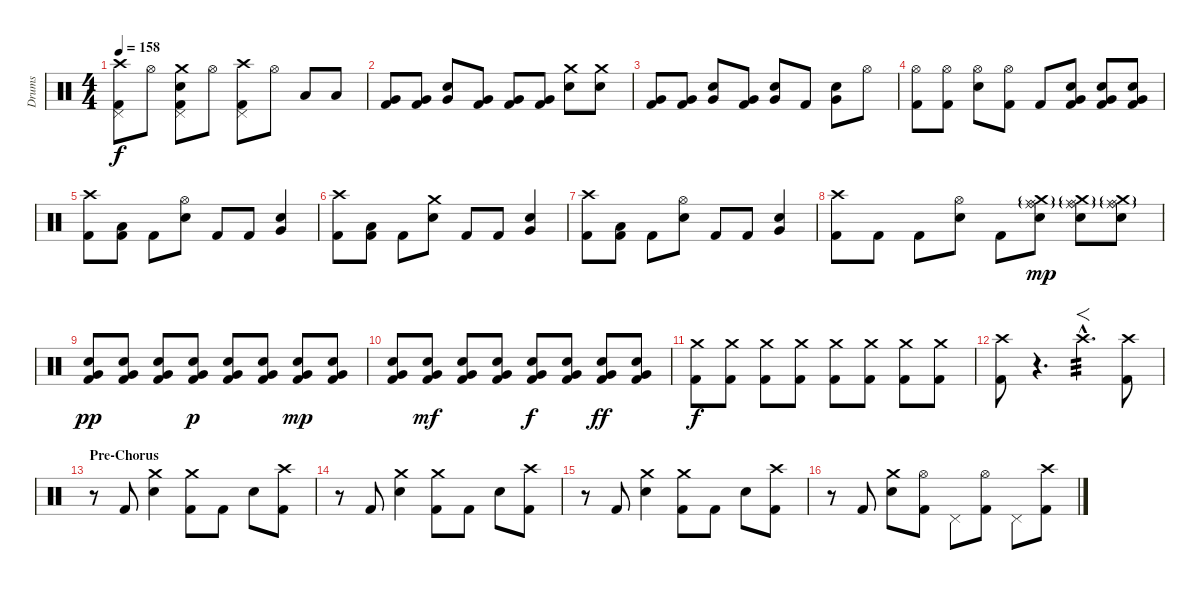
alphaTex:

\track ("Drums" "Drums") {instrument percussion}
\staff {score}
\articulation defaults
\ts (4 4)
\tempo 158
\clef neutral
\ks c
("Crash high (hit)" "Pedal Hi-Hat (hit)" "Kick (hit) 2").8{dy f} "Hi-Hat (open)".8 ("Crash medium (hit)" "Pedal Hi-Hat (hit)" "Snare (hit) 2" "Kick (hit) 2").8 "Hi-Hat (open)".8 ("Crash high (hit)" "Pedal Hi-Hat (hit)" "Kick (hit) 2").8 "Hi-Hat (open)".8 "Low Tom (hit)".8 "Low Tom (hit)".8 |
("Very Low Tom (hit)" "Kick (hit) 2").8 ("Very Low Tom (hit)" "Kick (hit) 2").8 ("Snare (hit) 2" "Very Low Tom (hit)").8 ("Very Low Tom (hit)" "Kick (hit) 2").8 ("Very Low Tom (hit)" "Kick (hit) 2").8 ("Very Low Tom (hit)" "Kick (hit) 2").8 ("Crash medium (hit)" "Snare (hit) 2").8 ("Crash medium (hit)" "Snare (hit) 2").8 |
("Very Low Tom (hit)" "Kick (hit) 2").8 ("Very Low Tom (hit)" "Kick (hit) 2").8 ("Snare (hit) 2" "Very Low Tom (hit)").8 ("Very Low Tom (hit)" "Kick (hit) 2").8 ("Snare (hit) 2" "Very Low Tom (hit)").8 "Kick (hit) 2".8 ("Snare (hit) 2" "Very Low Tom (hit)").8 "Hi-Hat (open)".8 |
("Hi-Hat (open)" "Kick (hit) 2").8 ("Hi-Hat (open)" "Kick (hit) 2").8 ("Hi-Hat (open)" "Snare (hit) 2").8 ("Hi-Hat (open)" "Kick (hit) 2").8 "Kick (hit) 2".8 ("Snare (hit) 2" "Very Low Tom (hit)" "Kick (hit) 2").8 ("Snare (hit) 2" "Very Low Tom (hit)" "Kick (hit) 2").8 ("Snare (hit) 2" "Very Low Tom (hit)" "Kick (hit) 2").8 |
("Crash high (hit)" "Kick (hit) 2").8 ("Low Tom (hit)" "Kick (hit) 2").8 "Kick (hit) 2".8 ("Hi-Hat (open)" "Snare (hit) 2").8 "Kick (hit) 2".8 "Kick (hit) 2".8 ("Snare (hit) 2" "Very Low Tom (hit)").4 |
("Crash high (hit)" "Kick (hit) 2").8 ("Low Tom (hit)" "Kick (hit) 2").8 "Kick (hit) 2".8 ("Crash medium (hit)" "Snare (hit) 2").8 "Kick (hit) 2".8 "Kick (hit) 2".8 ("Snare (hit) 2" "Very Low Tom (hit)").4 |
("Crash high (hit)" "Kick (hit) 2").8 ("Low Tom (hit)" "Kick (hit) 2").8 "Kick (hit) 2".8 ("Hi-Hat (open)" "Snare (hit) 2").8 "Kick (hit) 2".8 "Kick (hit) 2".8 ("Snare (hit) 2" "Very Low Tom (hit)").4 |
("Crash high (hit)" "Kick (hit) 2").8 "Kick (hit) 2".8 "Kick (hit) 2".8 ("Hi-Hat (open)" "Snare (hit) 2").8 "Kick (hit) 2".8 ("Ride (middle)" "Ride (bell)"{g} "Crash medium (hit)"{g} "Snare (hit) 2").8{dy mp} ("Ride (middle)" "Ride (bell)"{g} "Crash medium (hit)"{g} "Snare (hit) 2").8 ("Ride (middle)" "Ride (bell)"{g} "Crash medium (hit)"{g} "Snare (hit) 2").8 |
("Snare (hit) 2" "Very Low Tom (hit)" "Kick (hit) 2").8{dy pp} ("Snare (hit) 2" "Very Low Tom (hit)" "Kick (hit) 2").8 ("Snare (hit) 2" "Very Low Tom (hit)" "Kick (hit) 2").8 ("Snare (hit) 2" "Very Low Tom (hit)" "Kick (hit) 2").8{dy p} ("Snare (hit) 2" "Very Low Tom (hit)" "Kick (hit) 2").8 ("Snare (hit) 2" "Very Low Tom (hit)" "Kick (hit) 2").8 ("Snare (hit) 2" "Very Low Tom (hit)" "Kick (hit) 2").8{dy mp} ("Snare (hit) 2" "Very Low Tom (hit)" "Kick (hit) 2").8 |
("Snare (hit) 2" "Very Low Tom (hit)" "Kick (hit) 2").8 ("Snare (hit) 2" "Very Low Tom (hit)" "Kick (hit) 2").8{dy mf} ("Snare (hit) 2" "Very Low Tom (hit)" "Kick (hit) 2").8 ("Snare (hit) 2" "Very Low Tom (hit)" "Kick (hit) 2").8 ("Snare (hit) 2" "Very Low Tom (hit)" "Kick (hit) 2").8{dy f} ("Snare (hit) 2" "Very Low Tom (hit)" "Kick (hit) 2").8 ("Snare (hit) 2" "Very Low Tom (hit)" "Kick (hit) 2").8{dy ff} ("Snare (hit) 2" "Very Low Tom (hit)" "Kick (hit) 2").8 |
("Crash medium (hit)" "Kick (hit) 2").8{dy f} ("Crash medium (hit)" "Kick (hit) 2").8 ("Crash medium (hit)" "Kick (hit) 2").8 ("Crash medium (hit)" "Kick (hit) 2").8 ("Crash medium (hit)" "Kick (hit) 2").8 ("Crash medium (hit)" "Kick (hit) 2").8 ("Crash medium (hit)" "Kick (hit) 2").8 ("Crash medium (hit)" "Kick (hit) 2").8 |
("Crash high (hit)" "Kick (hit) 2").8 r.4{d volume 0} "Crash high (hit)"{hac}.4{f d tp 3 volume 16} ("Crash high (hit)" "Kick (hit) 2").8 |
\section ("" "Pre-Chorus")
r.8 "Kick (hit) 2".8 ("Crash medium (hit)" "Snare (hit) 2").4 ("Crash medium (hit)" "Kick (hit) 2").8 "Kick (hit) 2".8 "Snare (hit) 2".8 ("Crash high (hit)" "Kick (hit) 2").8 |
r.8 "Kick (hit) 2".8 ("Crash medium (hit)" "Snare (hit) 2").4 ("Crash medium (hit)" "Kick (hit) 2").8 "Kick (hit) 2".8 "Snare (hit) 2".8 ("Crash high (hit)" "Kick (hit) 2").8 |
r.8 "Kick (hit) 2".8 ("Crash medium (hit)" "Snare (hit) 2").4 ("Crash medium (hit)" "Kick (hit) 2").8 "Kick (hit) 2".8 "Snare (hit) 2".8 ("Crash high (hit)" "Kick (hit) 2").8 |
r.8 "Kick (hit) 2".8 ("Crash medium (hit)" "Snare (hit) 2").8 ("Hi-Hat (open)" "Kick (hit) 2").8 "Pedal Hi-Hat (hit)".8 ("Hi-Hat (open)" "Kick (hit) 2").8 "Pedal Hi-Hat (hit)".8 ("Crash high (hit)" "Kick (hit) 2").8
